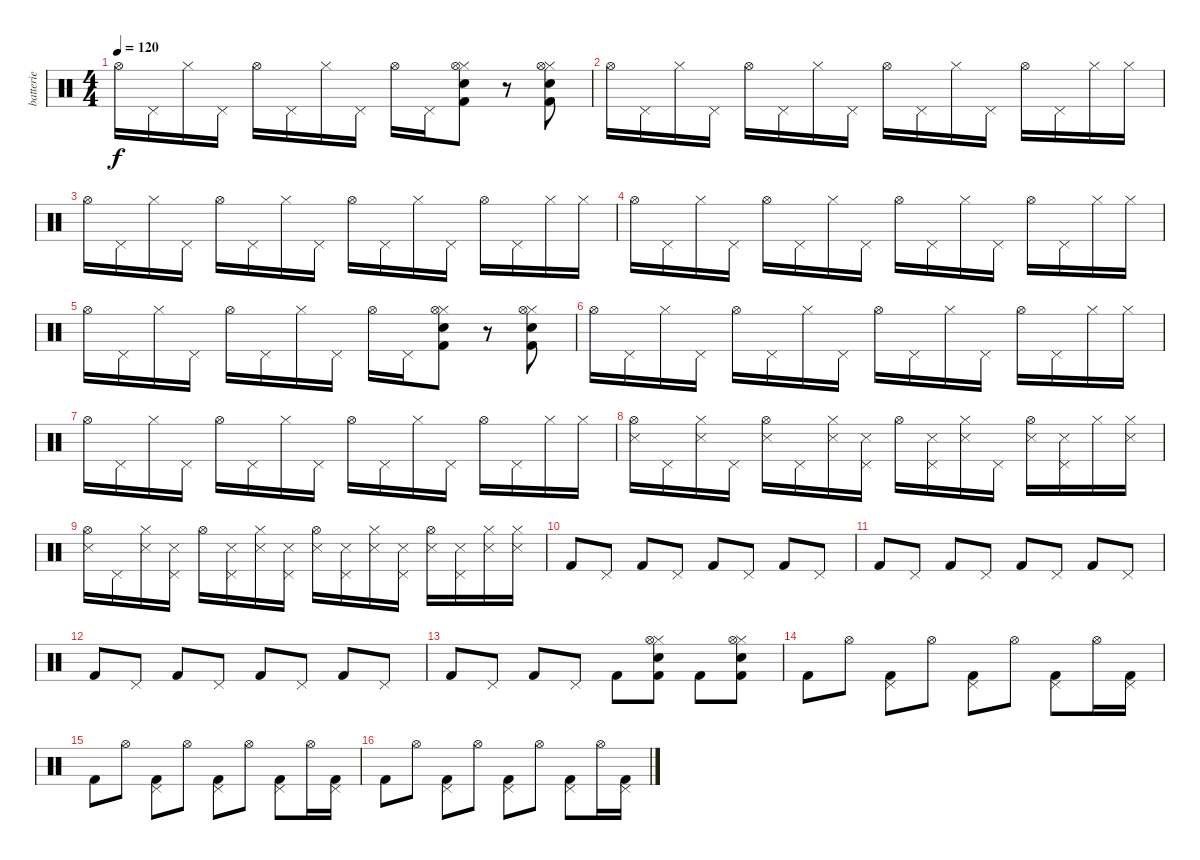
\track ("batterie" "batterie") {instrument percussion}
\staff {score}
\articulation defaults
\ts (4 4)
\tempo 120
\clef neutral
\ks c "Hi-Hat (open)".16{dy f} "Pedal Hi-Hat (hit)".16 "Hi-Hat (closed)".16 "Pedal Hi-Hat (hit)".16 "Hi-Hat (open)".16 "Pedal Hi-Hat (hit)".16 "Hi-Hat (closed)".16 "Pedal Hi-Hat (hit)".16 "Hi-Hat (open)".16 "Pedal Hi-Hat (hit)".16
("Kick (hit) 2" "Hi-Hat (closed)" "Electric Snare (hit)" "Hi-Hat (open)").8 r.8 ("Kick (hit) 2" "Hi-Hat (closed)" "Electric Snare (hit)" "Hi-Hat (open)").8 |
"Hi-Hat (open)".16 "Pedal Hi-Hat (hit)".16 "Hi-Hat (closed)".16 "Pedal Hi-Hat (hit)".16 "Hi-Hat (open)".16 "Pedal Hi-Hat (hit)".16 "Hi-Hat (closed)".16 "Pedal Hi-Hat (hit)".16 "Hi-Hat (open)".16 "Pedal Hi-Hat (hit)".16 "Hi-Hat (closed)".16 "Pedal Hi-Hat (hit)".16 "Hi-Hat (open)".16 "Pedal Hi-Hat (hit)".16 "Hi-Hat (closed)".16 "Hi-Hat (closed)".16 |
"Hi-Hat (open)".16 "Pedal Hi-Hat (hit)".16 "Hi-Hat (closed)".16 "Pedal Hi-Hat (hit)".16 "Hi-Hat (open)".16 "Pedal Hi-Hat (hit)".16 "Hi-Hat (closed)".16 "Pedal Hi-Hat (hit)".16 "Hi-Hat (open)".16 "Pedal Hi-Hat (hit)".16 "Hi-Hat (closed)".16 "Pedal Hi-Hat (hit)".16 "Hi-Hat (open)".16 "Pedal Hi-Hat (hit)".16 "Hi-Hat (closed)".16 "Hi-Hat (closed)".16 |
"Hi-Hat (open)".16 "Pedal Hi-Hat (hit)".16 "Hi-Hat (closed)".16 "Pedal Hi-Hat (hit)".16 "Hi-Hat (open)".16 "Pedal Hi-Hat (hit)".16 "Hi-Hat (closed)".16 "Pedal Hi-Hat (hit)".16 "Hi-Hat (open)".16 "Pedal Hi-Hat (hit)".16 "Hi-Hat (closed)".16 "Pedal Hi-Hat (hit)".16 "Hi-Hat (open)".16 "Pedal Hi-Hat (hit)".16 "Hi-Hat (closed)".16 "Hi-Hat (closed)".16 |
"Hi-Hat (open)".16 "Pedal Hi-Hat (hit)".16 "Hi-Hat (closed)".16 "Pedal Hi-Hat (hit)".16 "Hi-Hat (open)".16 "Pedal Hi-Hat (hit)".16 "Hi-Hat (closed)".16 "Pedal Hi-Hat (hit)".16 "Hi-Hat (open)".16 "Pedal Hi-Hat (hit)".16 ("Kick (hit) 2" "Hi-Hat (closed)" "Electric Snare (hit)" "Hi-Hat (open)").8 r.8 ("Kick (hit) 2" "Hi-Hat (closed)" "Electric Snare (hit)" "Hi-Hat (open)").8 |
"Hi-Hat (open)".16 "Pedal Hi-Hat (hit)".16 "Hi-Hat (closed)".16 "Pedal Hi-Hat (hit)".16 "Hi-Hat (open)".16 "Pedal Hi-Hat (hit)".16 "Hi-Hat (closed)".16 "Pedal Hi-Hat (hit)".16 "Hi-Hat (open)".16 "Pedal Hi-Hat (hit)".16 "Hi-Hat (closed)".16 "Pedal Hi-Hat (hit)".16 "Hi-Hat (open)".16 "Pedal Hi-Hat (hit)".16 "Hi-Hat (closed)".16 "Hi-Hat (closed)".16 |
"Hi-Hat (open)".16 "Pedal Hi-Hat (hit)".16 "Hi-Hat (closed)".16 "Pedal Hi-Hat (hit)".16 "Hi-Hat (open)".16 "Pedal Hi-Hat (hit)".16 "Hi-Hat (closed)".16 "Pedal Hi-Hat (hit)".16 "Hi-Hat (open)".16 "Pedal Hi-Hat (hit)".16 "Hi-Hat (closed)".16 "Pedal Hi-Hat (hit)".16 "Hi-Hat (open)".16 "Pedal Hi-Hat (hit)".16 "Hi-Hat (closed)".16 "Hi-Hat (closed)".16 |
("Hi-Hat (open)" "Snare (side stick) 3").16 "Pedal Hi-Hat (hit)".16 ("Hi-Hat (closed)" "Snare (side stick) 3").16 "Pedal Hi-Hat (hit)".16 ("Hi-Hat (open)" "Snare (side stick) 3").16 "Pedal Hi-Hat (hit)".16 ("Hi-Hat (closed)" "Snare (side stick) 3").16 ("Pedal Hi-Hat (hit)" "Snare (side stick) 3").16 "Hi-Hat (open)".16 ("Pedal Hi-Hat (hit)" "Snare (side stick) 3").16 ("Hi-Hat (closed)" "Snare (side stick) 3").16 "Pedal Hi-Hat (hit)".16 ("Hi-Hat (open)" "Snare (side stick) 3").16 ("Pedal Hi-Hat (hit)" "Snare (side stick) 3").16 "Hi-Hat (closed)".16 ("Hi-Hat (closed)" "Snare (side stick) 3").16 |
("Hi-Hat (open)" "Snare (side stick) 3").16 "Pedal Hi-Hat (hit)".16 ("Hi-Hat (closed)" "Snare (side stick) 3").16 ("Pedal Hi-Hat (hit)" "Snare (side stick) 3").16 "Hi-Hat (open)".16 ("Pedal Hi-Hat (hit)" "Snare (side stick) 3").16 ("Hi-Hat (closed)" "Snare (side stick) 3").16 ("Pedal Hi-Hat (hit)" "Snare (side stick) 3").16 ("Hi-Hat (open)" "Snare (side stick) 3").16 ("Pedal Hi-Hat (hit)" "Snare (side stick) 3").16 ("Hi-Hat (closed)" "Snare (side stick) 3").16 ("Pedal Hi-Hat (hit)" "Snare (side stick) 3").16 ("Hi-Hat (open)" "Snare (side stick) 3").16 ("Pedal Hi-Hat (hit)" "Snare (side stick) 3").16 ("Hi-Hat (closed)" "Snare (side stick) 3").16 ("Hi-Hat (closed)" "Snare (side stick) 3").16 |
"Kick (hit) 2".8 "Pedal Hi-Hat (hit)".8 "Kick (hit) 2".8 "Pedal Hi-Hat (hit)".8 "Kick (hit) 2".8 "Pedal Hi-Hat (hit)".8 "Kick (hit) 2".8 "Pedal Hi-Hat (hit)".8 |
"Kick (hit) 2".8 "Pedal Hi-Hat (hit)".8 "Kick (hit) 2".8 "Pedal Hi-Hat (hit)".8 "Kick (hit) 2".8 "Pedal Hi-Hat (hit)".8 "Kick (hit) 2".8 "Pedal Hi-Hat (hit)".8 |
"Kick (hit) 2".8 "Pedal Hi-Hat (hit)".8 "Kick (hit) 2".8 "Pedal Hi-Hat (hit)".8 "Kick (hit) 2".8 "Pedal Hi-Hat (hit)".8 "Kick (hit) 2".8 "Pedal Hi-Hat (hit)".8 |
"Kick (hit) 2".8 "Pedal Hi-Hat (hit)".8 "Kick (hit) 2".8 "Pedal Hi-Hat (hit)".8 "Kick (hit) 2".8 ("Kick (hit) 2" "Hi-Hat (closed)" "Electric Snare (hit)" "Hi-Hat (open)").8 "Kick (hit) 2".8 ("Kick (hit) 2" "Hi-Hat (closed)" "Electric Snare (hit)" "Hi-Hat (open)").8 |
"Kick (hit) 2".8 "Hi-Hat (open)".8 ("Kick (hit) 2" "Pedal Hi-Hat (hit)").8 "Hi-Hat (open)".8 ("Kick (hit) 2" "Pedal Hi-Hat (hit)").8 "Hi-Hat (open)".8 ("Kick (hit) 2" "Pedal Hi-Hat (hit)").8 "Hi-Hat (open)".16 ("Kick (hit) 2" "Pedal Hi-Hat (hit)").16 |
"Kick (hit) 2".8 "Hi-Hat (open)".8 ("Kick (hit) 2" "Pedal Hi-Hat (hit)").8 "Hi-Hat (open)".8 ("Kick (hit) 2" "Pedal Hi-Hat (hit)").8 "Hi-Hat (open)".8 ("Kick (hit) 2" "Pedal Hi-Hat (hit)").8 "Hi-Hat (open)".16 ("Kick (hit) 2" "Pedal Hi-Hat (hit)").16 |
"Kick (hit) 2".8 "Hi-Hat (open)".8 ("Kick (hit) 2" "Pedal Hi-Hat (hit)").8 "Hi-Hat (open)".8 ("Kick (hit) 2" "Pedal Hi-Hat (hit)").8 "Hi-Hat (open)".8 ("Kick (hit) 2" "Pedal Hi-Hat (hit)").8 "Hi-Hat (open)".16 ("Kick (hit) 2" "Pedal Hi-Hat (hit)").16
